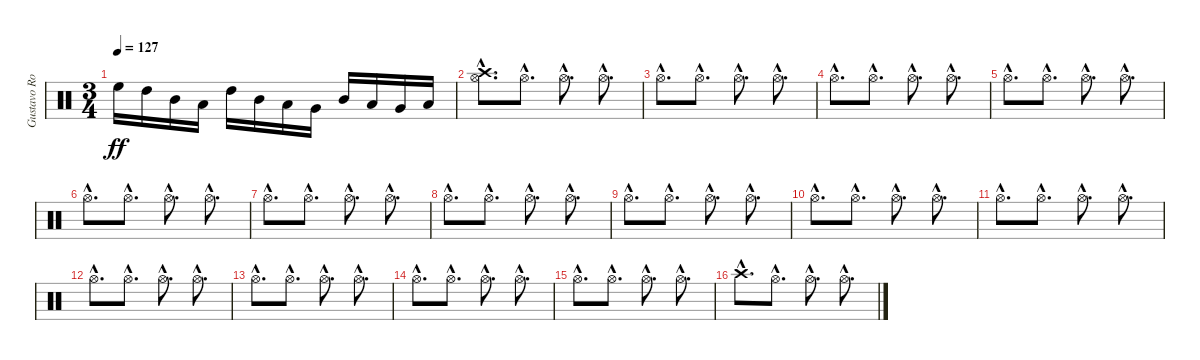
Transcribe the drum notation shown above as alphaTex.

\track ("Gustavo Rowek 1" "Gustavo Ro") {instrument percussion}
\staff {score}
\articulation defaults
\ts (3 4)
\tempo 127
\clef neutral
\ks c "High Floor Tom (hit)".16{dy ff} "High Tom (hit)".16 "Mid Tom (hit)".16 "Low Tom (hit)".16 "High Tom (hit)".16 "Mid Tom (hit)".16 "Low Tom (hit)".16 "Very Low Tom (hit)".16 "Mid Tom (hit)".16 "Low Tom (hit)".16 "Very Low Tom (hit)".16 "Low Floor Tom (hit)".16
|
("Hi-Hat (open)"{hac} "Crash high (hit)"{hac}).8{d} "Hi-Hat (open)"{hac}.8{d} "Hi-Hat (open)"{hac}.8{d} "Hi-Hat (open)"{hac}.8{d} |
"Hi-Hat (open)"{hac}.8{d} "Hi-Hat (open)"{hac}.8{d} "Hi-Hat (open)"{hac}.8{d} "Hi-Hat (open)"{hac}.8{d} |
"Hi-Hat (open)"{hac}.8{d} "Hi-Hat (open)"{hac}.8{d} "Hi-Hat (open)"{hac}.8{d} "Hi-Hat (open)"{hac}.8{d} |
"Hi-Hat (open)"{hac}.8{d} "Hi-Hat (open)"{hac}.8{d} "Hi-Hat (open)"{hac}.8{d} "Hi-Hat (open)"{hac}.8{d} |
"Hi-Hat (open)"{hac}.8{d} "Hi-Hat (open)"{hac}.8{d} "Hi-Hat (open)"{hac}.8{d} "Hi-Hat (open)"{hac}.8{d} |
"Hi-Hat (open)"{hac}.8{d} "Hi-Hat (open)"{hac}.8{d} "Hi-Hat (open)"{hac}.8{d} "Hi-Hat (open)"{hac}.8{d} |
"Hi-Hat (open)"{hac}.8{d} "Hi-Hat (open)"{hac}.8{d} "Hi-Hat (open)"{hac}.8{d} "Hi-Hat (open)"{hac}.8{d} |
"Hi-Hat (open)"{hac}.8{d} "Hi-Hat (open)"{hac}.8{d} "Hi-Hat (open)"{hac}.8{d} "Hi-Hat (open)"{hac}.8{d} |
"Hi-Hat (open)"{hac}.8{d} "Hi-Hat (open)"{hac}.8{d} "Hi-Hat (open)"{hac}.8{d} "Hi-Hat (open)"{hac}.8{d} |
"Hi-Hat (open)"{hac}.8{d} "Hi-Hat (open)"{hac}.8{d} "Hi-Hat (open)"{hac}.8{d} "Hi-Hat (open)"{hac}.8{d} |
"Hi-Hat (open)"{hac}.8{d} "Hi-Hat (open)"{hac}.8{d} "Hi-Hat (open)"{hac}.8{d} "Hi-Hat (open)"{hac}.8{d} |
"Hi-Hat (open)"{hac}.8{d} "Hi-Hat (open)"{hac}.8{d} "Hi-Hat (open)"{hac}.8{d} "Hi-Hat (open)"{hac}.8{d} |
"Hi-Hat (open)"{hac}.8{d} "Hi-Hat (open)"{hac}.8{d} "Hi-Hat (open)"{hac}.8{d} "Hi-Hat (open)"{hac}.8{d} |
"Hi-Hat (open)"{hac}.8{d} "Hi-Hat (open)"{hac}.8{d} "Hi-Hat (open)"{hac}.8{d} "Hi-Hat (open)"{hac}.8{d} |
"Crash high (hit)"{hac}.8{d} "Hi-Hat (open)"{hac}.8{d} "Hi-Hat (open)"{hac}.8{d} "Hi-Hat (open)"{hac}.8{d}
